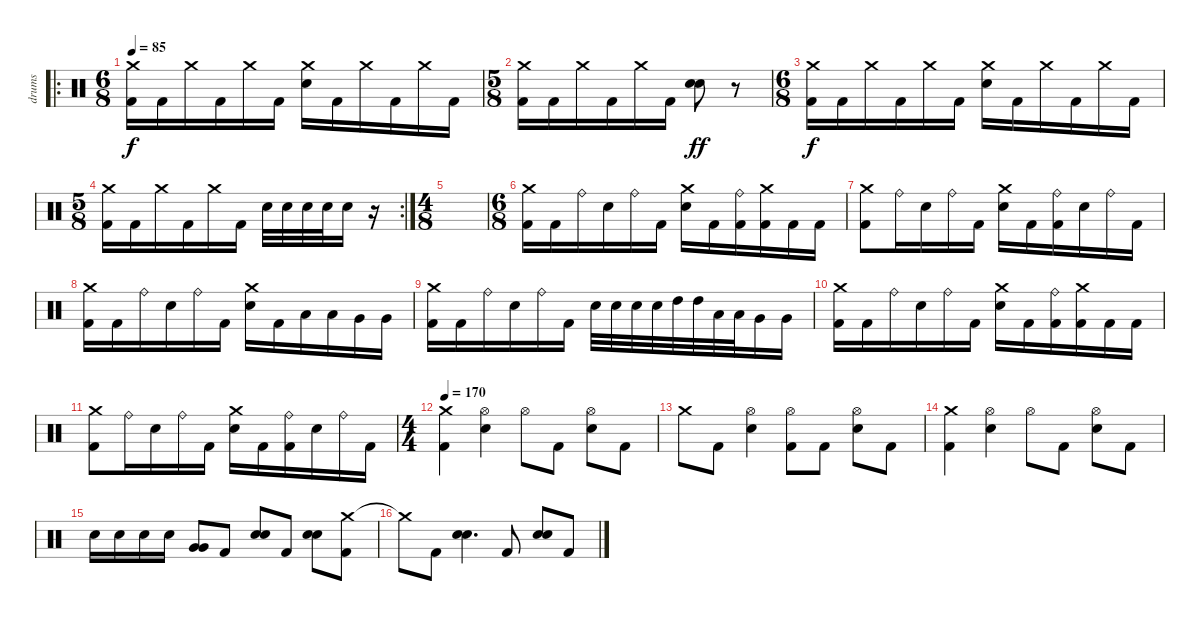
\track ("drums" "drums") {instrument percussion}
\staff {score}
\articulation defaults
\ro
\ts (6 8)
\tempo 85
\clef neutral
\ks c
("Crash medium (hit)" "Kick (hit) 2").16{dy f} "Kick (hit) 2".16 "Crash medium (hit)".16 "Kick (hit) 2".16 "Crash medium (hit)".16 "Kick (hit) 2".16 ("Crash medium (hit)" "Electric Snare (hit)").16 "Kick (hit) 2".16 "Crash medium (hit)".16 "Kick (hit) 2".16 "Crash medium (hit)".16 "Kick (hit) 2".16 |
\ts (5 8)
("Crash medium (hit)" "Kick (hit) 2").16 "Kick (hit) 2".16 "Crash medium (hit)".16 "Kick (hit) 2".16 "Crash medium (hit)".16 "Kick (hit) 2".16 ("Electric Snare (hit)" "Electric Snare (hit)").8{dy ff} r.8 |
\ts (6 8)
("Crash medium (hit)" "Kick (hit) 2").16{dy f} "Kick (hit) 2".16 "Crash medium (hit)".16 "Kick (hit) 2".16 "Crash medium (hit)".16 "Kick (hit) 2".16 ("Crash medium (hit)" "Electric Snare (hit)").16 "Kick (hit) 2".16 "Crash medium (hit)".16 "Kick (hit) 2".16 "Crash medium (hit)".16 "Kick (hit) 2".16 |
\rc 2
\ts (5 8)
("Crash medium (hit)" "Kick (hit) 2").16 "Kick (hit) 2".16 "Crash medium (hit)".16 "Kick (hit) 2".16 "Crash medium (hit)".16 "Kick (hit) 2".16 "Electric Snare (hit)".32 "Electric Snare (hit)".32 "Electric Snare (hit)".32 "Electric Snare (hit)".32 "Electric Snare (hit)".16 r.16 |
\ts (4 8)
|
\ts (6 8)
("Crash medium (hit)" "Kick (hit) 2").16 "Kick (hit) 2".16 "Ride (bell)".16 "Electric Snare (hit)".16 "Ride (bell)".16 "Kick (hit) 2".16 ("Crash medium (hit)" "Electric Snare (hit)").16 "Kick (hit) 2".16 ("Ride (bell)" "Kick (hit) 2").16 ("Crash medium (hit)" "Kick (hit) 2").16 "Kick (hit) 2".16 "Kick (hit) 2".16 |
("Crash medium (hit)" "Kick (hit) 2").8 "Ride (bell)".16 "Electric Snare (hit)".16 "Ride (bell)".16 "Kick (hit) 2".16 ("Crash medium (hit)" "Electric Snare (hit)").16 "Kick (hit) 2".16 ("Ride (bell)" "Kick (hit) 2").16 "Electric Snare (hit)".16 "Ride (bell)".16 "Kick (hit) 2".16 |
("Crash medium (hit)" "Kick (hit) 2").16 "Kick (hit) 2".16 "Ride (bell)".16 "Electric Snare (hit)".16 "Ride (bell)".16 "Kick (hit) 2".16 ("Crash medium (hit)" "Electric Snare (hit)").16 "Kick (hit) 2".16 "Low Tom (hit)".16 "Low Tom (hit)".16 "Very Low Tom (hit)".16 "Very Low Tom (hit)".16 |
("Crash medium (hit)" "Kick (hit) 2").16 "Kick (hit) 2".16 "Ride (bell)".16 "Electric Snare (hit)".16 "Ride (bell)".16 "Kick (hit) 2".16 "Electric Snare (hit)".32 "Electric Snare (hit)".32 "Electric Snare (hit)".32 "Electric Snare (hit)".32 "High Tom (hit)".32 "High Tom (hit)".32 "Low Tom (hit)".32 "Low Tom (hit)".32 "Very Low Tom (hit)".16 "Very Low Tom (hit)".16 |
("Crash medium (hit)" "Kick (hit) 2").16 "Kick (hit) 2".16 "Ride (bell)".16 "Electric Snare (hit)".16 "Ride (bell)".16 "Kick (hit) 2".16 ("Crash medium (hit)" "Electric Snare (hit)").16 "Kick (hit) 2".16 ("Ride (bell)" "Kick (hit) 2").16 ("Crash medium (hit)" "Kick (hit) 2").16 "Kick (hit) 2".16 "Kick (hit) 2".16 |
("Crash medium (hit)" "Kick (hit) 2").8 "Ride (bell)".16 "Electric Snare (hit)".16 "Ride (bell)".16 "Kick (hit) 2".16 ("Crash medium (hit)" "Electric Snare (hit)").16 "Kick (hit) 2".16 ("Ride (bell)" "Kick (hit) 2").16 "Electric Snare (hit)".16 "Ride (bell)".16 "Kick (hit) 2".16 |
\ts (4 4)
\tempo 170
("Crash medium (hit)" "Kick (hit) 2").4 ("Hi-Hat (open)" "Electric Snare (hit)").4 "Hi-Hat (open)".8 "Kick (hit) 2".8 ("Hi-Hat (open)" "Electric Snare (hit)").8 "Kick (hit) 2".8 |
"Crash medium (hit)".8 "Kick (hit) 2".8 ("Hi-Hat (open)" "Electric Snare (hit)").4 ("Hi-Hat (open)" "Kick (hit) 2").8 "Kick (hit) 2".8 ("Hi-Hat (open)" "Electric Snare (hit)").8 "Kick (hit) 2".8 |
("Crash medium (hit)" "Kick (hit) 2").4 ("Hi-Hat (open)" "Electric Snare (hit)").4 "Hi-Hat (open)".8 "Kick (hit) 2".8 ("Hi-Hat (open)" "Electric Snare (hit)").8 "Kick (hit) 2".8 |
"Electric Snare (hit)".16 "Electric Snare (hit)".16 "Electric Snare (hit)".16 "Electric Snare (hit)".16 ("Very Low Tom (hit)" "Very Low Tom (hit)").8 "Kick (hit) 2".8 ("Electric Snare (hit)" "Electric Snare (hit)").8 "Kick (hit) 2".8 ("Electric Snare (hit)" "Electric Snare (hit)").8 ("Crash medium (hit)" "Kick (hit) 2").8 |
"Crash medium (hit)"{t}.8 "Kick (hit) 2".8 ("Electric Snare (hit)" "Electric Snare (hit)").4{d} "Kick (hit) 2".8 ("Electric Snare (hit)" "Electric Snare (hit)").8 "Kick (hit) 2".8
